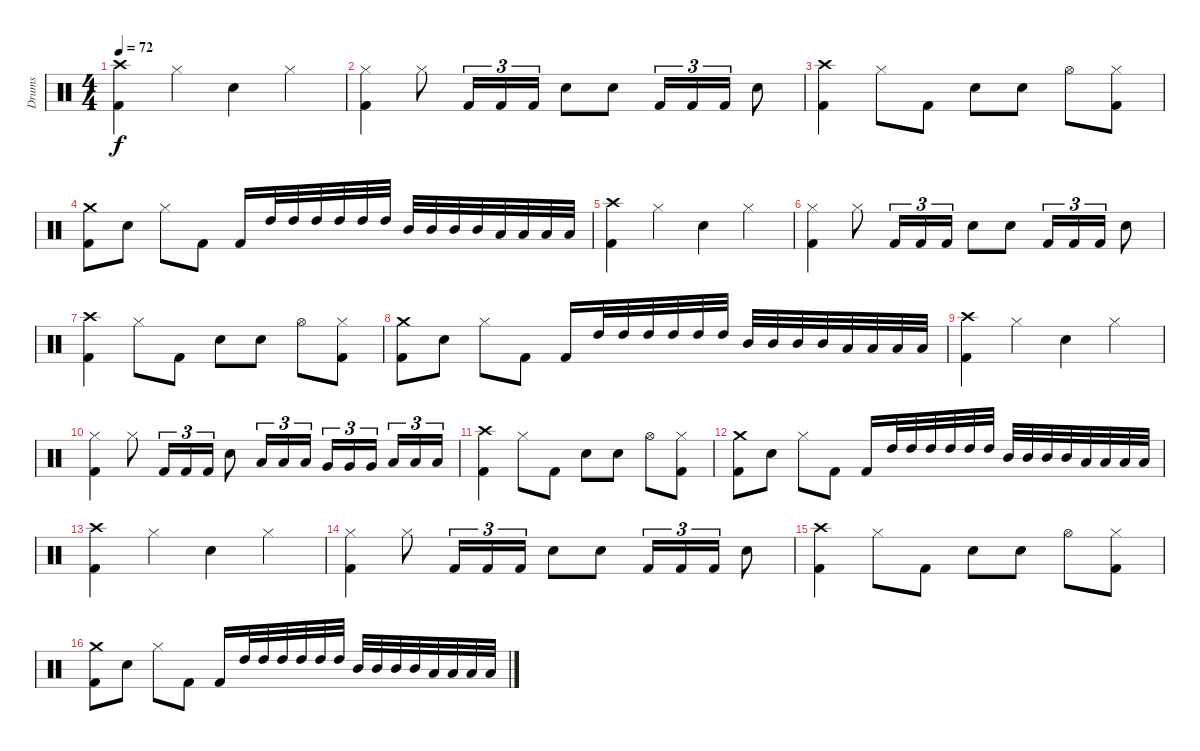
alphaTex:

\track ("Drums" "Drums") {instrument percussion}
\staff {score}
\articulation defaults
\ts (4 4)
\tempo 72
\clef neutral
\ks c
("Kick (hit) 2" "Crash high (hit)").4{dy f} "Hi-Hat (closed)".4 "Snare (hit) 2".4 "Hi-Hat (closed)".4 |
("Kick (hit) 2" "Hi-Hat (closed)").4 "Hi-Hat (closed)".8 "Kick (hit) 2".16{tu (3 2)} "Kick (hit) 2".16{tu (3 2)} "Kick (hit) 2".16{tu (3 2)} "Snare (hit) 2".8 "Snare (hit) 2".8 "Kick (hit) 2".16{tu (3 2)} "Kick (hit) 2".16{tu (3 2)} "Kick (hit) 2".16{tu (3 2)} "Snare (hit) 2".8 |
("Kick (hit) 2" "Crash high (hit)").4 "Hi-Hat (closed)".8 "Kick (hit) 2".8 "Snare (hit) 2".8 "Snare (hit) 2".8 "Hi-Hat (open)".8 ("Kick (hit) 2" "Hi-Hat (closed)").8 |
("Kick (hit) 2" "Crash medium (hit)").8 "Snare (hit) 2".8 "Hi-Hat (closed)".8 "Kick (hit) 2".8 "Kick (hit) 2".16 "High Tom (hit)".32 "High Tom (hit)".32 "High Tom (hit)".32 "High Tom (hit)".32 "High Tom (hit)".32 "High Tom (hit)".32 "Mid Tom (hit)".32 "Mid Tom (hit)".32 "Mid Tom (hit)".32 "Mid Tom (hit)".32 "Low Tom (hit)".32 "Low Tom (hit)".32 "Low Tom (hit)".32 "Low Tom (hit)".32 |
("Kick (hit) 2" "Crash high (hit)").4 "Hi-Hat (closed)".4 "Snare (hit) 2".4 "Hi-Hat (closed)".4 |
("Kick (hit) 2" "Hi-Hat (closed)").4 "Hi-Hat (closed)".8 "Kick (hit) 2".16{tu (3 2)} "Kick (hit) 2".16{tu (3 2)} "Kick (hit) 2".16{tu (3 2)} "Snare (hit) 2".8 "Snare (hit) 2".8 "Kick (hit) 2".16{tu (3 2)} "Kick (hit) 2".16{tu (3 2)} "Kick (hit) 2".16{tu (3 2)} "Snare (hit) 2".8 |
("Kick (hit) 2" "Crash high (hit)").4 "Hi-Hat (closed)".8 "Kick (hit) 2".8 "Snare (hit) 2".8 "Snare (hit) 2".8 "Hi-Hat (open)".8 ("Kick (hit) 2" "Hi-Hat (closed)").8 |
("Kick (hit) 2" "Crash medium (hit)").8 "Snare (hit) 2".8 "Hi-Hat (closed)".8 "Kick (hit) 2".8 "Kick (hit) 2".16 "High Tom (hit)".32 "High Tom (hit)".32 "High Tom (hit)".32 "High Tom (hit)".32 "High Tom (hit)".32 "High Tom (hit)".32 "Mid Tom (hit)".32 "Mid Tom (hit)".32 "Mid Tom (hit)".32 "Mid Tom (hit)".32 "Low Tom (hit)".32 "Low Tom (hit)".32 "Low Tom (hit)".32 "Low Tom (hit)".32 |
("Kick (hit) 2" "Crash high (hit)").4 "Hi-Hat (closed)".4 "Snare (hit) 2".4 "Hi-Hat (closed)".4 |
("Kick (hit) 2" "Hi-Hat (closed)").4 "Hi-Hat (closed)".8 "Kick (hit) 2".16{tu (3 2)} "Kick (hit) 2".16{tu (3 2)} "Kick (hit) 2".16{tu (3 2)} "Snare (hit) 2".8 "Low Tom (hit)".16{tu (3 2)} "Low Tom (hit)".16{tu (3 2)} "Low Tom (hit)".16{tu (3 2)} "Very Low Tom (hit)".16{tu (3 2)} "Very Low Tom (hit)".16{tu (3 2)} "Very Low Tom (hit)".16{tu (3 2)} "Low Floor Tom (hit)".16{tu (3 2)} "Low Floor Tom (hit)".16{tu (3 2)} "Low Floor Tom (hit)".16{tu (3 2)} |
("Kick (hit) 2" "Crash high (hit)").4 "Hi-Hat (closed)".8 "Kick (hit) 2".8 "Snare (hit) 2".8 "Snare (hit) 2".8 "Hi-Hat (open)".8 ("Kick (hit) 2" "Hi-Hat (closed)").8 |
("Kick (hit) 2" "Crash medium (hit)").8 "Snare (hit) 2".8 "Hi-Hat (closed)".8 "Kick (hit) 2".8 "Kick (hit) 2".16 "High Tom (hit)".32 "High Tom (hit)".32 "High Tom (hit)".32 "High Tom (hit)".32 "High Tom (hit)".32 "High Tom (hit)".32 "Mid Tom (hit)".32 "Mid Tom (hit)".32 "Mid Tom (hit)".32 "Mid Tom (hit)".32 "Low Tom (hit)".32 "Low Tom (hit)".32 "Low Tom (hit)".32 "Low Tom (hit)".32 |
("Kick (hit) 2" "Crash high (hit)").4 "Hi-Hat (closed)".4 "Snare (hit) 2".4 "Hi-Hat (closed)".4 |
("Kick (hit) 2" "Hi-Hat (closed)").4 "Hi-Hat (closed)".8 "Kick (hit) 2".16{tu (3 2)} "Kick (hit) 2".16{tu (3 2)} "Kick (hit) 2".16{tu (3 2)} "Snare (hit) 2".8 "Snare (hit) 2".8 "Kick (hit) 2".16{tu (3 2)} "Kick (hit) 2".16{tu (3 2)} "Kick (hit) 2".16{tu (3 2)} "Snare (hit) 2".8 |
("Kick (hit) 2" "Crash high (hit)").4 "Hi-Hat (closed)".8 "Kick (hit) 2".8 "Snare (hit) 2".8 "Snare (hit) 2".8 "Hi-Hat (open)".8 ("Kick (hit) 2" "Hi-Hat (closed)").8 |
("Kick (hit) 2" "Crash medium (hit)").8 "Snare (hit) 2".8 "Hi-Hat (closed)".8 "Kick (hit) 2".8 "Kick (hit) 2".16 "High Tom (hit)".32 "High Tom (hit)".32 "High Tom (hit)".32 "High Tom (hit)".32 "High Tom (hit)".32 "High Tom (hit)".32 "Mid Tom (hit)".32 "Mid Tom (hit)".32 "Mid Tom (hit)".32 "Mid Tom (hit)".32 "Low Tom (hit)".32 "Low Tom (hit)".32 "Low Tom (hit)".32 "Low Tom (hit)".32
